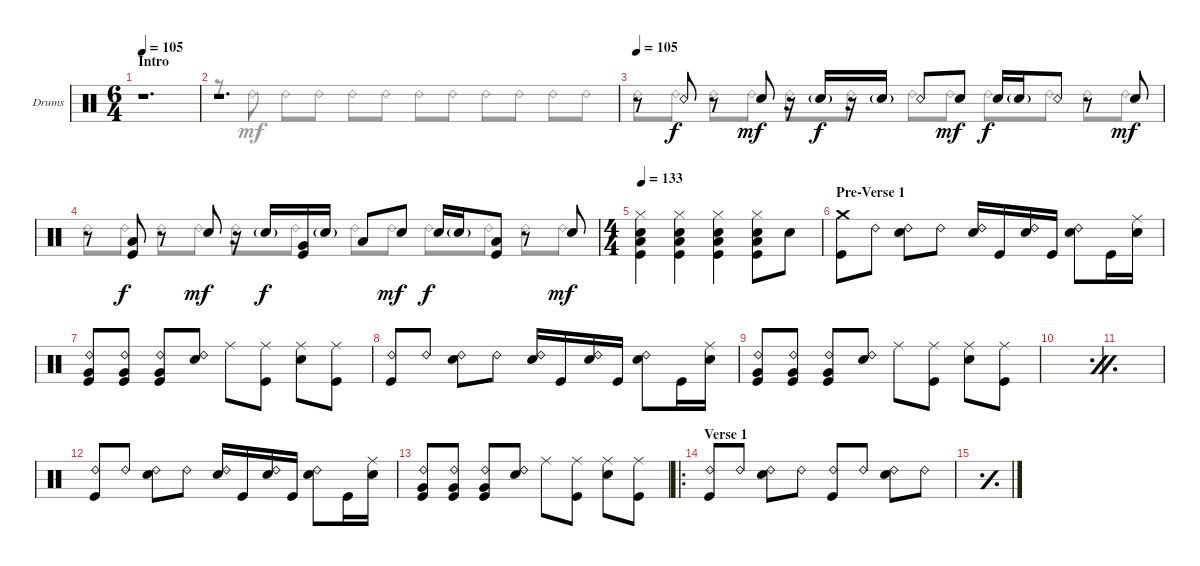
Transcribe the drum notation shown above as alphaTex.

\defaultSystemsLayout 4
\bracketExtendMode groupsimilarinstruments
\firstSystemTrackNameOrientation horizontal
\otherSystemsTrackNameOrientation horizontal
\chordDiagramsInScore
\track ("Drumkit" "Drums") {instrument percussion}
\staff {score}
\articulation defaults
\voice
\ts (6 4)
\section ("" "Intro")
\tempo 105
\clef neutral
\ks c
r.1{d dy f} |
r.1{d} |
\tempo 105
r.8 "Snare (rim shot)".8 r.8 "Snare (hit) 2".8{dy mf} r.16 "Snare (hit) 2"{g}.16{dy f} r.16 "Snare (hit) 2"{g}.16 "Snare (rim shot)".8 "Snare (hit) 2".8{dy mf} "Snare (hit) 2".16{dy f} "Snare (hit) 2"{g}.16 "Snare (rim shot)".8 r.8 "Snare (hit) 2".8{dy mf} |
r.8 ("Low Tom (hit)" "Kick (hit)").8{dy f} r.8 "Snare (hit) 2".8{dy mf} r.16 "Snare (hit) 2"{g}.16{dy f} ("Kick (hit)" "Very Low Tom (hit)").16 "Snare (hit) 2"{g}.16 "Low Tom (hit)".8 "Snare (hit) 2".8{dy mf} "Snare (hit) 2".16{dy f} "Snare (hit) 2"{g}.16 ("Low Tom (hit)" "Kick (hit)").8 r.8 "Snare (hit) 2".8{dy mf} |
\ts (4 4)
\tempo (133 0.0125)
("Kick (hit)" "Snare (hit) 2" "Low Tom (hit)" "Hi-Hat (closed)").4 ("Kick (hit)" "Snare (hit) 2" "Low Tom (hit)" "Hi-Hat (closed)").4 ("Kick (hit)" "Snare (hit) 2" "Low Tom (hit)" "Hi-Hat (closed)").4 ("Kick (hit)" "Snare (hit) 2" "Low Tom (hit)" "Hi-Hat (closed)").8 "Snare (hit) 2".8 |
\section ("" "Pre-Verse 1")
("Kick (hit)" "Crash medium (hit)").8 "Ride (bell) 2".8 ("Snare (hit) 2" "Ride (bell) 2").8 "Ride (bell) 2".8 ("Snare (hit) 2" "Ride (bell) 2").16 "Kick (hit)".16 ("Snare (hit) 2" "Ride (bell) 2").16 "Kick (hit)".16 ("Snare (hit) 2" "Ride (bell) 2").8 "Kick (hit)".16 ("Snare (hit) 2" "Ride (middle)").16 |
("Very Low Tom (hit)" "Kick (hit)" "Ride (bell) 2").8 ("Very Low Tom (hit)" "Kick (hit)" "Ride (bell) 2").8 ("Very Low Tom (hit)" "Kick (hit)" "Ride (bell) 2").8 ("Snare (hit) 2" "Ride (bell) 2").8 "Ride (middle)".8 ("Kick (hit)" "Ride (middle)").8 ("Snare (hit) 2" "Ride (middle)").8 ("Kick (hit)" "Ride (middle)").8 |
("Kick (hit)" "Ride (bell) 2").8 "Ride (bell) 2".8 ("Snare (hit) 2" "Ride (bell) 2").8 "Ride (bell) 2".8 ("Snare (hit) 2" "Ride (bell) 2").16 "Kick (hit)".16 ("Snare (hit) 2" "Ride (bell) 2").16 "Kick (hit)".16 ("Snare (hit) 2" "Ride (bell) 2").8 "Kick (hit)".16 ("Snare (hit) 2" "Ride (middle)").16 |
("Very Low Tom (hit)" "Kick (hit)" "Ride (bell) 2").8 ("Very Low Tom (hit)" "Kick (hit)" "Ride (bell) 2").8 ("Very Low Tom (hit)" "Kick (hit)" "Ride (bell) 2").8 ("Snare (hit) 2" "Ride (bell) 2").8 "Ride (middle)".8 ("Kick (hit)" "Ride (middle)").8 ("Snare (hit) 2" "Ride (middle)").8 ("Kick (hit)" "Ride (middle)").8 |
\simile firstofdouble
|
\simile secondofdouble
|
\simile none
("Kick (hit)" "Ride (bell) 2").8 "Ride (bell) 2".8 ("Snare (hit) 2" "Ride (bell) 2").8 "Ride (bell) 2".8 ("Snare (hit) 2" "Ride (bell) 2").16 "Kick (hit)".16 ("Snare (hit) 2" "Ride (bell) 2").16 "Kick (hit)".16 ("Snare (hit) 2" "Ride (bell) 2").8 "Kick (hit)".16 ("Snare (hit) 2" "Ride (middle)").16 |
("Very Low Tom (hit)" "Kick (hit)" "Ride (bell) 2").8 ("Very Low Tom (hit)" "Kick (hit)" "Ride (bell) 2").8 ("Very Low Tom (hit)" "Kick (hit)" "Ride (bell) 2").8 ("Snare (hit) 2" "Ride (bell) 2").8 "Ride (middle)".8 ("Kick (hit)" "Ride (middle)").8 ("Snare (hit) 2" "Ride (middle)").8 ("Kick (hit)" "Ride (middle)").8 |
\ro
\section ("" "Verse 1")
("Ride (bell) 2" "Kick (hit)").8 "Ride (bell) 2".8 ("Ride (bell) 2" "Snare (hit) 2").8 "Ride (bell) 2".8 ("Ride (bell) 2" "Kick (hit)").8 "Ride (bell) 2".8 ("Ride (bell) 2" "Snare (hit) 2").8 "Ride (bell) 2".8 |
\simile simple
|
\voice
\clef neutral
\ottava regular
\simile none
\ks c
|
r.8 "Ride (bell) 2".8 "Ride (bell) 2".8 "Ride (bell) 2".8 "Ride (bell) 2".8 "Ride (bell) 2".8 "Ride (bell) 2".8 "Ride (bell) 2".8 "Ride (bell) 2".8 "Ride (bell) 2".8 "Ride (bell) 2".8 "Ride (bell) 2".8 |
"Ride (bell) 2".8 "Ride (bell) 2".8 "Ride (bell) 2".8 "Ride (bell) 2".8 "Ride (bell) 2".8 "Ride (bell) 2".8 "Ride (bell) 2".8 "Ride (bell) 2".8 "Ride (bell) 2".8 "Ride (bell) 2".8 "Ride (bell) 2".8 "Ride (bell) 2".8 |
"Ride (bell) 2".8 "Ride (bell) 2".8 "Ride (bell) 2".8 "Ride (bell) 2".8 "Ride (bell) 2".8 "Ride (bell) 2".8 "Ride (bell) 2".8 "Ride (bell) 2".8 "Ride (bell) 2".8 "Ride (bell) 2".8 "Ride (bell) 2".8 "Ride (bell) 2".8 |
|
|
|
|
|
\simile firstofdouble
|
\simile secondofdouble
|
\simile none
|
|
|
\simile simple
|
